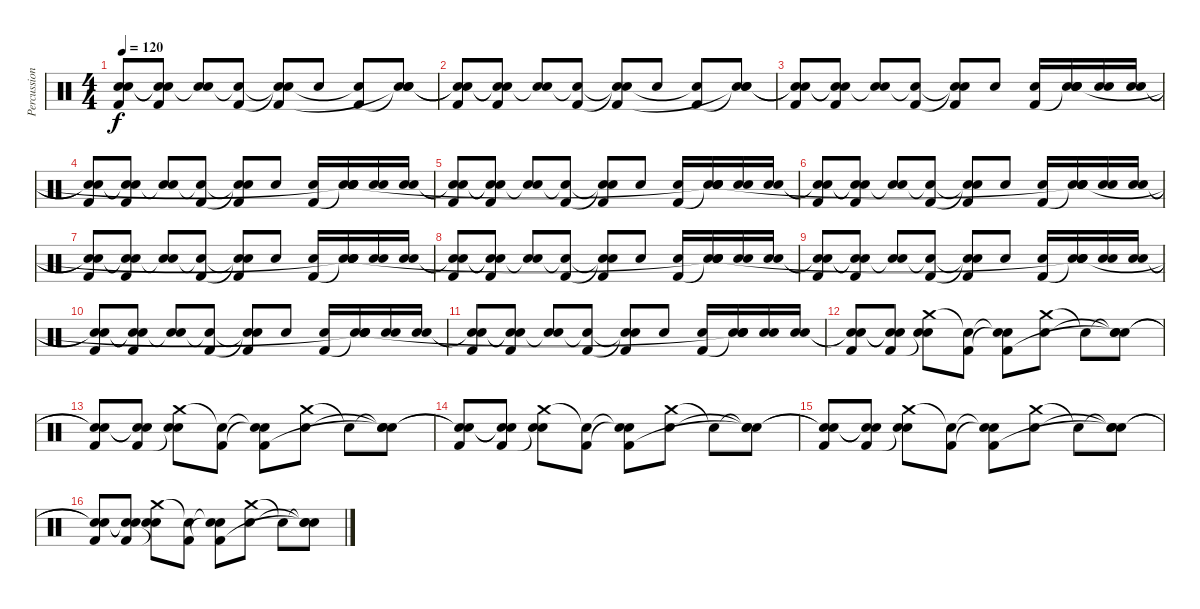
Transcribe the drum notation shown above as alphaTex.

\track ("Percussion" "Percussion") {instrument percussion}
\staff {score}
\articulation defaults
\ts (4 4)
\tempo 120
\clef neutral
\ks c
("Snare (hit)"{t} "Snare (hit)"{t} "Kick (hit) 2").8{dy f} ("Snare (hit)"{t} "Snare (hit)"{t} "Kick (hit) 2").8 ("Snare (hit) 2" "Snare (hit)"{t}).8 ("Snare (hit)"{t} "Kick (hit) 2").8 ("Snare (hit)"{t} "Snare (hit)"{t} "Kick (hit) 2").8 "Snare (hit) 2".8 ("Kick (hit) 2" "Snare (hit)"{t}).8 ("Snare (hit)"{t} "Snare (hit) 2" "Snare (hit)"{t}).8 |
("Snare (hit)"{t} "Snare (hit)"{t} "Kick (hit) 2").8 ("Snare (hit)"{t} "Snare (hit)"{t} "Kick (hit) 2").8 ("Snare (hit) 2" "Snare (hit)"{t}).8 ("Snare (hit)"{t} "Kick (hit) 2").8 ("Snare (hit)"{t} "Snare (hit)"{t} "Kick (hit) 2").8 "Snare (hit) 2".8 ("Kick (hit) 2" "Snare (hit)"{t}).8 ("Snare (hit)"{t} "Snare (hit) 2" "Snare (hit)"{t}).8 |
("Snare (hit)"{t} "Snare (hit)"{t} "Kick (hit) 2").8 ("Snare (hit)"{t} "Snare (hit)"{t} "Kick (hit) 2").8 ("Snare (hit) 2" "Snare (hit)"{t}).8 ("Snare (hit)"{t} "Kick (hit) 2").8 ("Snare (hit)"{t} "Snare (hit)"{t} "Kick (hit) 2").8 "Snare (hit) 2".8 ("Kick (hit) 2" "Snare (hit) 2").16 ("Snare (hit)"{t} "Snare (hit) 2" "Snare (hit) 2" "Snare (hit)").16 ("Snare (hit) 2" "Snare (hit) 2").16 ("Snare (hit) 2" "Snare (hit) 2").16 |
("Snare (hit)"{t} "Snare (hit)"{t} "Kick (hit) 2").8 ("Snare (hit)"{t} "Snare (hit)"{t} "Kick (hit) 2").8 ("Snare (hit) 2" "Snare (hit)"{t}).8 ("Snare (hit)"{t} "Kick (hit) 2").8 ("Snare (hit)"{t} "Snare (hit)"{t} "Kick (hit) 2").8 "Snare (hit) 2".8 ("Kick (hit) 2" "Snare (hit) 2").16 ("Snare (hit)"{t} "Snare (hit) 2" "Snare (hit) 2" "Snare (hit)"{t}).16 ("Snare (hit) 2" "Snare (hit) 2").16 ("Snare (hit) 2" "Snare (hit) 2").16 |
("Snare (hit)"{t} "Snare (hit)"{t} "Kick (hit) 2").8 ("Snare (hit)"{t} "Snare (hit)"{t} "Kick (hit) 2").8 ("Snare (hit) 2" "Snare (hit)"{t}).8 ("Snare (hit)"{t} "Kick (hit) 2").8 ("Snare (hit)"{t} "Snare (hit)"{t} "Kick (hit) 2").8 "Snare (hit) 2".8 ("Kick (hit) 2" "Snare (hit) 2").16 ("Snare (hit)"{t} "Snare (hit) 2" "Snare (hit) 2" "Snare (hit)"{t}).16 ("Snare (hit) 2" "Snare (hit) 2").16 ("Snare (hit) 2" "Snare (hit) 2").16 |
("Snare (hit)"{t} "Snare (hit)"{t} "Kick (hit) 2").8 ("Snare (hit)"{t} "Snare (hit)"{t} "Kick (hit) 2").8 ("Snare (hit) 2" "Snare (hit)"{t}).8 ("Snare (hit)"{t} "Kick (hit) 2").8 ("Snare (hit)"{t} "Snare (hit)"{t} "Kick (hit) 2").8 "Snare (hit) 2".8 ("Kick (hit) 2" "Snare (hit) 2").16 ("Snare (hit)"{t} "Snare (hit) 2" "Snare (hit) 2" "Snare (hit)"{t}).16 ("Snare (hit) 2" "Snare (hit) 2").16 ("Snare (hit) 2" "Snare (hit) 2").16 |
("Snare (hit)"{t} "Snare (hit)"{t} "Kick (hit) 2").8 ("Snare (hit)"{t} "Snare (hit)"{t} "Kick (hit) 2").8 ("Snare (hit) 2" "Snare (hit)"{t}).8 ("Snare (hit)"{t} "Kick (hit) 2").8 ("Snare (hit)"{t} "Snare (hit)"{t} "Kick (hit) 2").8 "Snare (hit) 2".8 ("Kick (hit) 2" "Snare (hit) 2").16 ("Snare (hit)"{t} "Snare (hit) 2" "Snare (hit) 2" "Snare (hit)"{t}).16 ("Snare (hit) 2" "Snare (hit) 2").16 ("Snare (hit) 2" "Snare (hit) 2").16 |
("Snare (hit)"{t} "Snare (hit)"{t} "Kick (hit) 2").8 ("Snare (hit)"{t} "Snare (hit)"{t} "Kick (hit) 2").8 ("Snare (hit) 2" "Snare (hit)"{t}).8 ("Snare (hit)"{t} "Kick (hit) 2").8 ("Snare (hit)"{t} "Snare (hit)"{t} "Kick (hit) 2").8 "Snare (hit) 2".8 ("Kick (hit) 2" "Snare (hit) 2").16 ("Snare (hit)"{t} "Snare (hit) 2" "Snare (hit) 2" "Snare (hit)"{t}).16 ("Snare (hit) 2" "Snare (hit) 2").16 ("Snare (hit) 2" "Snare (hit) 2").16 |
("Snare (hit)"{t} "Snare (hit)"{t} "Kick (hit) 2").8 ("Snare (hit)"{t} "Snare (hit)"{t} "Kick (hit) 2").8 ("Snare (hit) 2" "Snare (hit)"{t}).8 ("Snare (hit)"{t} "Kick (hit) 2").8 ("Snare (hit)"{t} "Snare (hit)"{t} "Kick (hit) 2").8 "Snare (hit) 2".8 ("Kick (hit) 2" "Snare (hit) 2").16 ("Snare (hit)"{t} "Snare (hit) 2" "Snare (hit) 2" "Snare (hit)"{t}).16 ("Snare (hit) 2" "Snare (hit) 2").16 ("Snare (hit) 2" "Snare (hit) 2").16 |
("Snare (hit)"{t} "Snare (hit)"{t} "Kick (hit) 2").8 ("Snare (hit)"{t} "Snare (hit)"{t} "Kick (hit) 2").8 ("Snare (hit) 2" "Snare (hit)"{t}).8 ("Snare (hit)"{t} "Kick (hit) 2").8 ("Snare (hit)"{t} "Snare (hit)"{t} "Kick (hit) 2").8 "Snare (hit) 2".8 ("Kick (hit) 2" "Snare (hit) 2").16 ("Snare (hit)"{t} "Snare (hit) 2" "Snare (hit) 2" "Snare (hit)"{t}).16 ("Snare (hit) 2" "Snare (hit) 2").16 ("Snare (hit) 2" "Snare (hit) 2").16 |
("Snare (hit)"{t} "Snare (hit)"{t} "Kick (hit) 2").8 ("Snare (hit)"{t} "Snare (hit)"{t} "Kick (hit) 2").8 ("Snare (hit) 2" "Snare (hit)"{t}).8 ("Snare (hit)"{t} "Kick (hit) 2").8 ("Snare (hit)"{t} "Snare (hit)"{t} "Kick (hit) 2").8 "Snare (hit) 2".8 ("Kick (hit) 2" "Snare (hit) 2").16 ("Snare (hit)"{t} "Snare (hit) 2" "Snare (hit) 2" "Snare (hit)"{t}).16 ("Snare (hit) 2" "Snare (hit) 2").16 ("Snare (hit) 2" "Snare (hit) 2").16 |
("Snare (hit)"{t} "Snare (hit)"{t} "Kick (hit) 2").8 ("Snare (hit)"{t} "Snare (hit)"{t} "Kick (hit) 2").8 ("Crash medium (hit)" "Snare (hit) 2" "Snare (hit)"{t}).8 ("Snare (hit)"{t} "Kick (hit) 2").8 ("Snare (hit)"{t} "Snare (hit)"{t} "Kick (hit) 2").8 ("Crash medium (hit)" "Snare (hit) 2").8 "Snare (hit)"{t}.8 ("Snare (hit)"{t} "Snare (hit)"{t} "Snare (hit)"{t}).8 |
("Snare (hit)"{t} "Snare (hit)"{t} "Kick (hit) 2").8 ("Snare (hit)"{t} "Snare (hit)"{t} "Kick (hit) 2").8 ("Crash medium (hit)" "Snare (hit) 2" "Snare (hit)"{t}).8 ("Snare (hit)"{t} "Kick (hit) 2").8 ("Snare (hit)"{t} "Snare (hit)"{t} "Kick (hit) 2").8 ("Crash medium (hit)" "Snare (hit) 2").8 "Snare (hit)"{t}.8 ("Snare (hit)"{t} "Snare (hit)"{t} "Snare (hit)"{t}).8 |
("Snare (hit)"{t} "Snare (hit)"{t} "Kick (hit) 2").8 ("Snare (hit)"{t} "Snare (hit)"{t} "Kick (hit) 2").8 ("Crash medium (hit)" "Snare (hit) 2" "Snare (hit)"{t}).8 ("Snare (hit)"{t} "Kick (hit) 2").8 ("Snare (hit)"{t} "Snare (hit)"{t} "Kick (hit) 2").8 ("Crash medium (hit)" "Snare (hit) 2").8 "Snare (hit)"{t}.8 ("Snare (hit)"{t} "Snare (hit)"{t} "Snare (hit)"{t}).8 |
("Snare (hit)"{t} "Snare (hit)"{t} "Kick (hit) 2").8 ("Snare (hit)"{t} "Snare (hit)"{t} "Kick (hit) 2").8 ("Crash medium (hit)" "Snare (hit) 2" "Snare (hit)"{t}).8 ("Snare (hit)"{t} "Kick (hit) 2").8 ("Snare (hit)"{t} "Snare (hit)"{t} "Kick (hit) 2").8 ("Crash medium (hit)" "Snare (hit) 2").8 "Snare (hit)"{t}.8 ("Snare (hit)"{t} "Snare (hit)"{t} "Snare (hit)"{t}).8 |
("Snare (hit)"{t} "Snare (hit)"{t} "Kick (hit) 2").8 ("Snare (hit)"{t} "Snare (hit)"{t} "Kick (hit) 2").8 ("Crash medium (hit)" "Snare (hit) 2" "Snare (hit)"{t}).8 ("Snare (hit)"{t} "Kick (hit) 2").8 ("Snare (hit)"{t} "Snare (hit)"{t} "Kick (hit) 2").8 ("Crash medium (hit)" "Snare (hit) 2").8 "Snare (hit)"{t}.8 ("Snare (hit)"{t} "Snare (hit)"{t} "Snare (hit)"{t}).8
